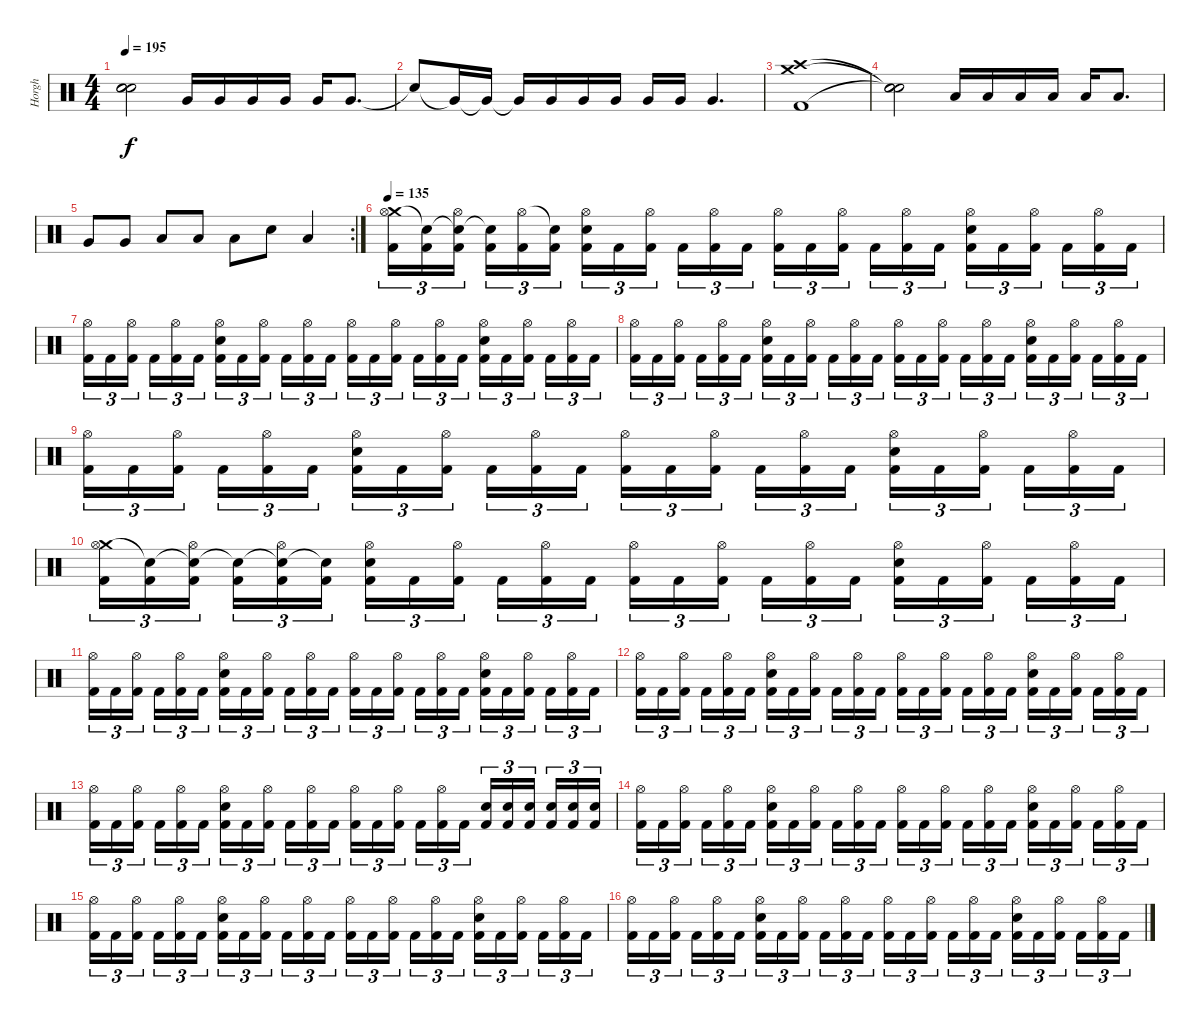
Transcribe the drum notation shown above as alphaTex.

\track ("Horgh" "Horgh") {instrument percussion}
\staff {score}
\articulation defaults
\ts (4 4)
\tempo 195
\clef neutral
\ks c
("Snare (hit)"{t} "Snare (hit)"{t} "Snare (hit)"{t}).2{dy f} "Very Low Tom (hit)".16 "Very Low Tom (hit)".16 "Very Low Tom (hit)".16 "Very Low Tom (hit)".16 "Very Low Tom (hit)".16 "Very Low Tom (hit)".8{d} |
"Snare (hit)"{t}.8 "Very Low Tom (hit)"{t}.16 "Very Low Tom (hit)"{t}.16 "Very Low Tom (hit)"{t}.16 "Very Low Tom (hit)".16 "Very Low Tom (hit)".16 "Very Low Tom (hit)".16 "Very Low Tom (hit)".16 "Very Low Tom (hit)".16 "Very Low Tom (hit)".4{d} |
("Crash high (hit)" "Crash medium (hit)" "Kick (hit) 2").1 |
("Snare (hit)"{t} "Snare (hit)"{t} "Snare (hit)"{t}).2 "Low Tom (hit)".16 "Low Tom (hit)".16 "Low Tom (hit)".16 "Low Tom (hit)".16 "Low Tom (hit)".16 "Low Tom (hit)".8{d} |
\rc 2 "Very Low Tom (hit)".8 "Very Low Tom (hit)".8 "Low Floor Tom (hit)".8 "Low Floor Tom (hit)".8 "Low Floor Tom (hit)".8 "Electric Snare (hit)".8 "Low Floor Tom (hit)".4
|
\tempo 135
("Crash medium (hit)" "Hi-Hat (open)" "Kick (hit) 2").16{tu (3 2)} ("Snare (hit)"{t} "Kick (hit) 2").16{tu (3 2)} ("Snare (hit)"{t} "Hi-Hat (open)" "Kick (hit) 2").16{tu (3 2) beam splitsecondary} ("Snare (hit)"{t} "Kick (hit) 2").16{tu (3 2)} ("Hi-Hat (open)" "Kick (hit) 2").16{tu (3 2)} ("Snare (hit)"{t} "Kick (hit) 2").16{tu (3 2)} ("Hi-Hat (open)" "Electric Snare (hit)" "Kick (hit) 2").16{tu (3 2)} "Kick (hit) 2".16{tu (3 2)} ("Hi-Hat (open)" "Kick (hit) 2").16{tu (3 2) beam splitsecondary} "Kick (hit) 2".16{tu (3 2)} ("Hi-Hat (open)" "Kick (hit) 2").16{tu (3 2)} "Kick (hit) 2".16{tu (3 2)} ("Hi-Hat (open)" "Kick (hit) 2").16{tu (3 2)} "Kick (hit) 2".16{tu (3 2)} ("Hi-Hat (open)" "Kick (hit) 2").16{tu (3 2) beam splitsecondary} "Kick (hit) 2".16{tu (3 2)} ("Hi-Hat (open)" "Kick (hit) 2").16{tu (3 2)} "Kick (hit) 2".16{tu (3 2)} ("Hi-Hat (open)" "Electric Snare (hit)" "Kick (hit) 2").16{tu (3 2)} "Kick (hit) 2".16{tu (3 2)} ("Hi-Hat (open)" "Kick (hit) 2").16{tu (3 2) beam splitsecondary} "Kick (hit) 2".16{tu (3 2)} ("Hi-Hat (open)" "Kick (hit) 2").16{tu (3 2)} "Kick (hit) 2".16{tu (3 2)} |
("Hi-Hat (open)" "Kick (hit) 2").16{tu (3 2)} "Kick (hit) 2".16{tu (3 2)} ("Hi-Hat (open)" "Kick (hit) 2").16{tu (3 2) beam splitsecondary} "Kick (hit) 2".16{tu (3 2)} ("Hi-Hat (open)" "Kick (hit) 2").16{tu (3 2)} "Kick (hit) 2".16{tu (3 2)} ("Hi-Hat (open)" "Electric Snare (hit)" "Kick (hit) 2").16{tu (3 2)} "Kick (hit) 2".16{tu (3 2)} ("Hi-Hat (open)" "Kick (hit) 2").16{tu (3 2) beam splitsecondary} "Kick (hit) 2".16{tu (3 2)} ("Hi-Hat (open)" "Kick (hit) 2").16{tu (3 2)} "Kick (hit) 2".16{tu (3 2)} ("Hi-Hat (open)" "Kick (hit) 2").16{tu (3 2)} "Kick (hit) 2".16{tu (3 2)} ("Hi-Hat (open)" "Kick (hit) 2").16{tu (3 2) beam splitsecondary} "Kick (hit) 2".16{tu (3 2)} ("Hi-Hat (open)" "Kick (hit) 2").16{tu (3 2)} "Kick (hit) 2".16{tu (3 2)} ("Hi-Hat (open)" "Electric Snare (hit)" "Kick (hit) 2").16{tu (3 2)} "Kick (hit) 2".16{tu (3 2)} ("Hi-Hat (open)" "Kick (hit) 2").16{tu (3 2) beam splitsecondary} "Kick (hit) 2".16{tu (3 2)} ("Hi-Hat (open)" "Kick (hit) 2").16{tu (3 2)} "Kick (hit) 2".16{tu (3 2)} |
("Hi-Hat (open)" "Kick (hit) 2").16{tu (3 2)} "Kick (hit) 2".16{tu (3 2)} ("Hi-Hat (open)" "Kick (hit) 2").16{tu (3 2) beam splitsecondary} "Kick (hit) 2".16{tu (3 2)} ("Hi-Hat (open)" "Kick (hit) 2").16{tu (3 2)} "Kick (hit) 2".16{tu (3 2)} ("Hi-Hat (open)" "Electric Snare (hit)" "Kick (hit) 2").16{tu (3 2)} "Kick (hit) 2".16{tu (3 2)} ("Hi-Hat (open)" "Kick (hit) 2").16{tu (3 2) beam splitsecondary} "Kick (hit) 2".16{tu (3 2)} ("Hi-Hat (open)" "Kick (hit) 2").16{tu (3 2)} "Kick (hit) 2".16{tu (3 2)} ("Hi-Hat (open)" "Kick (hit) 2").16{tu (3 2)} "Kick (hit) 2".16{tu (3 2)} ("Hi-Hat (open)" "Kick (hit) 2").16{tu (3 2) beam splitsecondary} "Kick (hit) 2".16{tu (3 2)} ("Hi-Hat (open)" "Kick (hit) 2").16{tu (3 2)} "Kick (hit) 2".16{tu (3 2)} ("Hi-Hat (open)" "Electric Snare (hit)" "Kick (hit) 2").16{tu (3 2)} "Kick (hit) 2".16{tu (3 2)} ("Hi-Hat (open)" "Kick (hit) 2").16{tu (3 2) beam splitsecondary} "Kick (hit) 2".16{tu (3 2)} ("Hi-Hat (open)" "Kick (hit) 2").16{tu (3 2)} "Kick (hit) 2".16{tu (3 2)} |
("Hi-Hat (open)" "Kick (hit) 2").16{tu (3 2)} "Kick (hit) 2".16{tu (3 2)} ("Hi-Hat (open)" "Kick (hit) 2").16{tu (3 2) beam splitsecondary} "Kick (hit) 2".16{tu (3 2)} ("Hi-Hat (open)" "Kick (hit) 2").16{tu (3 2)} "Kick (hit) 2".16{tu (3 2)} ("Hi-Hat (open)" "Electric Snare (hit)" "Kick (hit) 2").16{tu (3 2)} "Kick (hit) 2".16{tu (3 2)} ("Hi-Hat (open)" "Kick (hit) 2").16{tu (3 2) beam splitsecondary} "Kick (hit) 2".16{tu (3 2)} ("Hi-Hat (open)" "Kick (hit) 2").16{tu (3 2)} "Kick (hit) 2".16{tu (3 2)} ("Hi-Hat (open)" "Kick (hit) 2").16{tu (3 2)} "Kick (hit) 2".16{tu (3 2)} ("Hi-Hat (open)" "Kick (hit) 2").16{tu (3 2) beam splitsecondary} "Kick (hit) 2".16{tu (3 2)} ("Hi-Hat (open)" "Kick (hit) 2").16{tu (3 2)} "Kick (hit) 2".16{tu (3 2)} ("Hi-Hat (open)" "Electric Snare (hit)" "Kick (hit) 2").16{tu (3 2)} "Kick (hit) 2".16{tu (3 2)} ("Hi-Hat (open)" "Kick (hit) 2").16{tu (3 2) beam splitsecondary} "Kick (hit) 2".16{tu (3 2)} ("Hi-Hat (open)" "Kick (hit) 2").16{tu (3 2)} "Kick (hit) 2".16{tu (3 2)} |
("Crash medium (hit)" "Hi-Hat (open)" "Kick (hit) 2").16{tu (3 2)} ("Snare (hit)"{t} "Kick (hit) 2").16{tu (3 2)} ("Snare (hit)"{t} "Hi-Hat (open)" "Kick (hit) 2").16{tu (3 2) beam splitsecondary} ("Snare (hit)"{t} "Kick (hit) 2").16{tu (3 2)} ("Snare (hit)"{t} "Hi-Hat (open)" "Kick (hit) 2").16{tu (3 2)} ("Snare (hit)"{t} "Kick (hit) 2").16{tu (3 2)} ("Hi-Hat (open)" "Electric Snare (hit)" "Kick (hit) 2").16{tu (3 2)} "Kick (hit) 2".16{tu (3 2)} ("Hi-Hat (open)" "Kick (hit) 2").16{tu (3 2) beam splitsecondary} "Kick (hit) 2".16{tu (3 2)} ("Hi-Hat (open)" "Kick (hit) 2").16{tu (3 2)} "Kick (hit) 2".16{tu (3 2)} ("Hi-Hat (open)" "Kick (hit) 2").16{tu (3 2)} "Kick (hit) 2".16{tu (3 2)} ("Hi-Hat (open)" "Kick (hit) 2").16{tu (3 2) beam splitsecondary} "Kick (hit) 2".16{tu (3 2)} ("Hi-Hat (open)" "Kick (hit) 2").16{tu (3 2)} "Kick (hit) 2".16{tu (3 2)} ("Hi-Hat (open)" "Electric Snare (hit)" "Kick (hit) 2").16{tu (3 2)} "Kick (hit) 2".16{tu (3 2)} ("Hi-Hat (open)" "Kick (hit) 2").16{tu (3 2) beam splitsecondary} "Kick (hit) 2".16{tu (3 2)} ("Hi-Hat (open)" "Kick (hit) 2").16{tu (3 2)} "Kick (hit) 2".16{tu (3 2)} |
("Hi-Hat (open)" "Kick (hit) 2").16{tu (3 2)} "Kick (hit) 2".16{tu (3 2)} ("Hi-Hat (open)" "Kick (hit) 2").16{tu (3 2) beam splitsecondary} "Kick (hit) 2".16{tu (3 2)} ("Hi-Hat (open)" "Kick (hit) 2").16{tu (3 2)} "Kick (hit) 2".16{tu (3 2)} ("Hi-Hat (open)" "Electric Snare (hit)" "Kick (hit) 2").16{tu (3 2)} "Kick (hit) 2".16{tu (3 2)} ("Hi-Hat (open)" "Kick (hit) 2").16{tu (3 2) beam splitsecondary} "Kick (hit) 2".16{tu (3 2)} ("Hi-Hat (open)" "Kick (hit) 2").16{tu (3 2)} "Kick (hit) 2".16{tu (3 2)} ("Hi-Hat (open)" "Kick (hit) 2").16{tu (3 2)} "Kick (hit) 2".16{tu (3 2)} ("Hi-Hat (open)" "Kick (hit) 2").16{tu (3 2) beam splitsecondary} "Kick (hit) 2".16{tu (3 2)} ("Hi-Hat (open)" "Kick (hit) 2").16{tu (3 2)} "Kick (hit) 2".16{tu (3 2)} ("Hi-Hat (open)" "Electric Snare (hit)" "Kick (hit) 2").16{tu (3 2)} "Kick (hit) 2".16{tu (3 2)} ("Hi-Hat (open)" "Kick (hit) 2").16{tu (3 2) beam splitsecondary} "Kick (hit) 2".16{tu (3 2)} ("Hi-Hat (open)" "Kick (hit) 2").16{tu (3 2)} "Kick (hit) 2".16{tu (3 2)} |
("Hi-Hat (open)" "Kick (hit) 2").16{tu (3 2)} "Kick (hit) 2".16{tu (3 2)} ("Hi-Hat (open)" "Kick (hit) 2").16{tu (3 2) beam splitsecondary} "Kick (hit) 2".16{tu (3 2)} ("Hi-Hat (open)" "Kick (hit) 2").16{tu (3 2)} "Kick (hit) 2".16{tu (3 2)} ("Hi-Hat (open)" "Electric Snare (hit)" "Kick (hit) 2").16{tu (3 2)} "Kick (hit) 2".16{tu (3 2)} ("Hi-Hat (open)" "Kick (hit) 2").16{tu (3 2) beam splitsecondary} "Kick (hit) 2".16{tu (3 2)} ("Hi-Hat (open)" "Kick (hit) 2").16{tu (3 2)} "Kick (hit) 2".16{tu (3 2)} ("Hi-Hat (open)" "Kick (hit) 2").16{tu (3 2)} "Kick (hit) 2".16{tu (3 2)} ("Hi-Hat (open)" "Kick (hit) 2").16{tu (3 2) beam splitsecondary} "Kick (hit) 2".16{tu (3 2)} ("Hi-Hat (open)" "Kick (hit) 2").16{tu (3 2)} "Kick (hit) 2".16{tu (3 2)} ("Hi-Hat (open)" "Electric Snare (hit)" "Kick (hit) 2").16{tu (3 2)} "Kick (hit) 2".16{tu (3 2)} ("Hi-Hat (open)" "Kick (hit) 2").16{tu (3 2) beam splitsecondary} "Kick (hit) 2".16{tu (3 2)} ("Hi-Hat (open)" "Kick (hit) 2").16{tu (3 2)} "Kick (hit) 2".16{tu (3 2)} |
("Hi-Hat (open)" "Kick (hit) 2").16{tu (3 2)} "Kick (hit) 2".16{tu (3 2)} ("Hi-Hat (open)" "Kick (hit) 2").16{tu (3 2) beam splitsecondary} "Kick (hit) 2".16{tu (3 2)} ("Hi-Hat (open)" "Kick (hit) 2").16{tu (3 2)} "Kick (hit) 2".16{tu (3 2)} ("Hi-Hat (open)" "Electric Snare (hit)" "Kick (hit) 2").16{tu (3 2)} "Kick (hit) 2".16{tu (3 2)} ("Hi-Hat (open)" "Kick (hit) 2").16{tu (3 2) beam splitsecondary} "Kick (hit) 2".16{tu (3 2)} ("Hi-Hat (open)" "Kick (hit) 2").16{tu (3 2)} "Kick (hit) 2".16{tu (3 2)} ("Hi-Hat (open)" "Kick (hit) 2").16{tu (3 2)} "Kick (hit) 2".16{tu (3 2)} ("Hi-Hat (open)" "Kick (hit) 2").16{tu (3 2) beam splitsecondary} "Kick (hit) 2".16{tu (3 2)} ("Hi-Hat (open)" "Kick (hit) 2").16{tu (3 2)} "Kick (hit) 2".16{tu (3 2)} ("Electric Snare (hit)" "Kick (hit) 2").16{tu (3 2)} ("Electric Snare (hit)" "Kick (hit) 2").16{tu (3 2)} ("Electric Snare (hit)" "Kick (hit) 2").16{tu (3 2) beam splitsecondary} ("Electric Snare (hit)" "Kick (hit) 2").16{tu (3 2)} ("Electric Snare (hit)" "Kick (hit) 2").16{tu (3 2)} ("Electric Snare (hit)" "Kick (hit) 2").16{tu (3 2)} |
("Hi-Hat (open)" "Kick (hit) 2").16{tu (3 2)} "Kick (hit) 2".16{tu (3 2)} ("Hi-Hat (open)" "Kick (hit) 2").16{tu (3 2) beam splitsecondary} "Kick (hit) 2".16{tu (3 2)} ("Hi-Hat (open)" "Kick (hit) 2").16{tu (3 2)} "Kick (hit) 2".16{tu (3 2)} ("Hi-Hat (open)" "Electric Snare (hit)" "Kick (hit) 2").16{tu (3 2)} "Kick (hit) 2".16{tu (3 2)} ("Hi-Hat (open)" "Kick (hit) 2").16{tu (3 2) beam splitsecondary} "Kick (hit) 2".16{tu (3 2)} ("Hi-Hat (open)" "Kick (hit) 2").16{tu (3 2)} "Kick (hit) 2".16{tu (3 2)} ("Hi-Hat (open)" "Kick (hit) 2").16{tu (3 2)} "Kick (hit) 2".16{tu (3 2)} ("Hi-Hat (open)" "Kick (hit) 2").16{tu (3 2) beam splitsecondary} "Kick (hit) 2".16{tu (3 2)} ("Hi-Hat (open)" "Kick (hit) 2").16{tu (3 2)} "Kick (hit) 2".16{tu (3 2)} ("Hi-Hat (open)" "Electric Snare (hit)" "Kick (hit) 2").16{tu (3 2)} "Kick (hit) 2".16{tu (3 2)} ("Hi-Hat (open)" "Kick (hit) 2").16{tu (3 2) beam splitsecondary} "Kick (hit) 2".16{tu (3 2)} ("Hi-Hat (open)" "Kick (hit) 2").16{tu (3 2)} "Kick (hit) 2".16{tu (3 2)} |
("Hi-Hat (open)" "Kick (hit) 2").16{tu (3 2)} "Kick (hit) 2".16{tu (3 2)} ("Hi-Hat (open)" "Kick (hit) 2").16{tu (3 2) beam splitsecondary} "Kick (hit) 2".16{tu (3 2)} ("Hi-Hat (open)" "Kick (hit) 2").16{tu (3 2)} "Kick (hit) 2".16{tu (3 2)} ("Hi-Hat (open)" "Electric Snare (hit)" "Kick (hit) 2").16{tu (3 2)} "Kick (hit) 2".16{tu (3 2)} ("Hi-Hat (open)" "Kick (hit) 2").16{tu (3 2) beam splitsecondary} "Kick (hit) 2".16{tu (3 2)} ("Hi-Hat (open)" "Kick (hit) 2").16{tu (3 2)} "Kick (hit) 2".16{tu (3 2)} ("Hi-Hat (open)" "Kick (hit) 2").16{tu (3 2)} "Kick (hit) 2".16{tu (3 2)} ("Hi-Hat (open)" "Kick (hit) 2").16{tu (3 2) beam splitsecondary} "Kick (hit) 2".16{tu (3 2)} ("Hi-Hat (open)" "Kick (hit) 2").16{tu (3 2)} "Kick (hit) 2".16{tu (3 2)} ("Hi-Hat (open)" "Electric Snare (hit)" "Kick (hit) 2").16{tu (3 2)} "Kick (hit) 2".16{tu (3 2)} ("Hi-Hat (open)" "Kick (hit) 2").16{tu (3 2) beam splitsecondary} "Kick (hit) 2".16{tu (3 2)} ("Hi-Hat (open)" "Kick (hit) 2").16{tu (3 2)} "Kick (hit) 2".16{tu (3 2)} |
("Hi-Hat (open)" "Kick (hit) 2").16{tu (3 2)} "Kick (hit) 2".16{tu (3 2)} ("Hi-Hat (open)" "Kick (hit) 2").16{tu (3 2) beam splitsecondary} "Kick (hit) 2".16{tu (3 2)} ("Hi-Hat (open)" "Kick (hit) 2").16{tu (3 2)} "Kick (hit) 2".16{tu (3 2)} ("Hi-Hat (open)" "Electric Snare (hit)" "Kick (hit) 2").16{tu (3 2)} "Kick (hit) 2".16{tu (3 2)} ("Hi-Hat (open)" "Kick (hit) 2").16{tu (3 2) beam splitsecondary} "Kick (hit) 2".16{tu (3 2)} ("Hi-Hat (open)" "Kick (hit) 2").16{tu (3 2)} "Kick (hit) 2".16{tu (3 2)} ("Hi-Hat (open)" "Kick (hit) 2").16{tu (3 2)} "Kick (hit) 2".16{tu (3 2)} ("Hi-Hat (open)" "Kick (hit) 2").16{tu (3 2) beam splitsecondary} "Kick (hit) 2".16{tu (3 2)} ("Hi-Hat (open)" "Kick (hit) 2").16{tu (3 2)} "Kick (hit) 2".16{tu (3 2)} ("Hi-Hat (open)" "Electric Snare (hit)" "Kick (hit) 2").16{tu (3 2)} "Kick (hit) 2".16{tu (3 2)} ("Hi-Hat (open)" "Kick (hit) 2").16{tu (3 2) beam splitsecondary} "Kick (hit) 2".16{tu (3 2)} ("Hi-Hat (open)" "Kick (hit) 2").16{tu (3 2)} "Kick (hit) 2".16{tu (3 2)}
